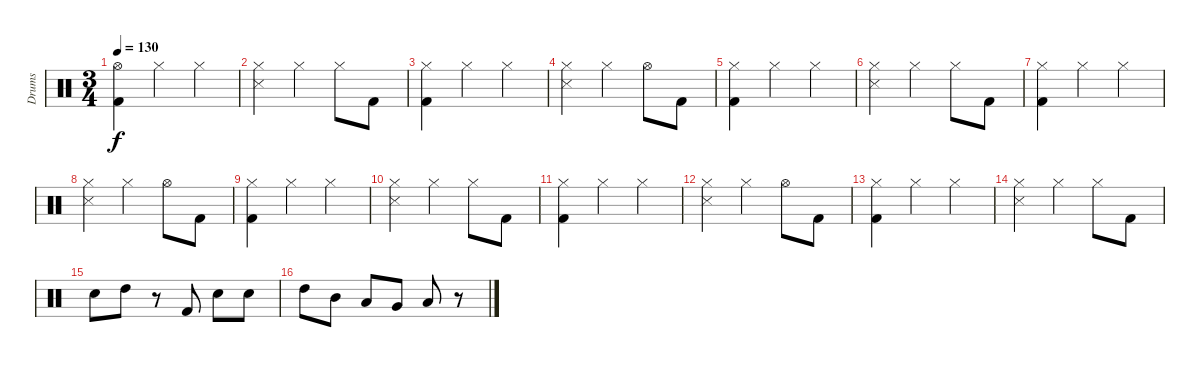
\track ("Drums" "Drums") {instrument percussion}
\staff {score}
\articulation defaults
\ts (3 4)
\tempo 130
\clef neutral
\ks c
("Hi-Hat (open)" "Kick (hit) 2").4{dy f} "Hi-Hat (closed)".4 "Hi-Hat (closed)".4 |
("Hi-Hat (closed)" "Snare (side stick) 3").4 "Hi-Hat (closed)".4 "Hi-Hat (closed)".8 "Kick (hit) 2".8 |
("Hi-Hat (closed)" "Kick (hit) 2").4 "Hi-Hat (closed)".4 "Hi-Hat (closed)".4 |
("Hi-Hat (closed)" "Snare (side stick) 3").4 "Hi-Hat (closed)".4 "Hi-Hat (open)".8 "Kick (hit) 2".8 |
("Hi-Hat (closed)" "Kick (hit) 2").4 "Hi-Hat (closed)".4 "Hi-Hat (closed)".4 |
("Hi-Hat (closed)" "Snare (side stick) 3").4 "Hi-Hat (closed)".4 "Hi-Hat (closed)".8 "Kick (hit) 2".8 |
("Hi-Hat (closed)" "Kick (hit) 2").4 "Hi-Hat (closed)".4 "Hi-Hat (closed)".4 |
("Hi-Hat (closed)" "Snare (side stick) 3").4 "Hi-Hat (closed)".4 "Hi-Hat (open)".8 "Kick (hit) 2".8 |
("Hi-Hat (closed)" "Kick (hit) 2").4 "Hi-Hat (closed)".4 "Hi-Hat (closed)".4 |
("Hi-Hat (closed)" "Snare (side stick) 3").4 "Hi-Hat (closed)".4 "Hi-Hat (closed)".8 "Kick (hit) 2".8 |
("Hi-Hat (closed)" "Kick (hit) 2").4 "Hi-Hat (closed)".4 "Hi-Hat (closed)".4 |
("Hi-Hat (closed)" "Snare (side stick) 3").4 "Hi-Hat (closed)".4 "Hi-Hat (open)".8 "Kick (hit) 2".8 |
("Hi-Hat (closed)" "Kick (hit) 2").4 "Hi-Hat (closed)".4 "Hi-Hat (closed)".4 |
("Hi-Hat (closed)" "Snare (side stick) 3").4 "Hi-Hat (closed)".4 "Hi-Hat (closed)".8 "Kick (hit) 2".8 |
"Electric Snare (hit)".8 "High Tom (hit)".8 r.8 "Kick (hit) 2".8 "Electric Snare (hit)".8 "Electric Snare (hit)".8 |
"High Tom (hit)".8 "Mid Tom (hit)".8 "Low Tom (hit)".8 "Very Low Tom (hit)".8 "Low Floor Tom (hit)".8 r.8
